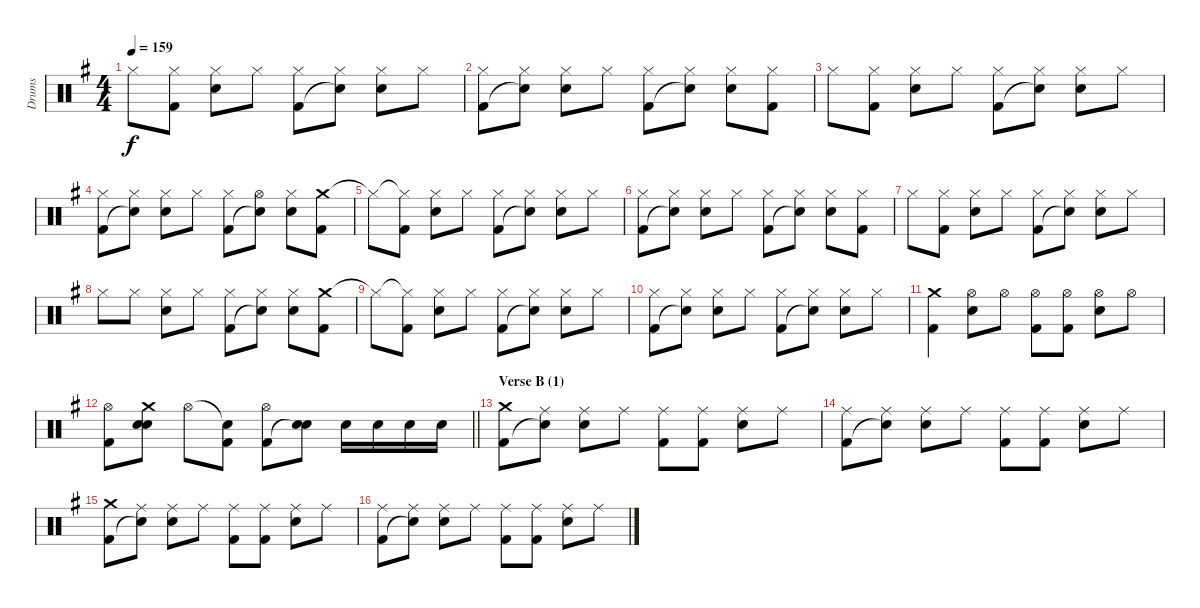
\track ("Drums" "Drums") {instrument percussion}
\staff {score}
\articulation defaults
\ts (4 4)
\tempo 159
\clef neutral
\ks g "Hi-Hat (closed)".8{dy f}
("Hi-Hat (closed)" "Kick (hit) 2").8 ("Hi-Hat (closed)" "Electric Snare (hit)").8 "Hi-Hat (closed)".8 ("Hi-Hat (closed)" "Kick (hit) 2").8 ("Hi-Hat (closed)" "Snare (hit)"{t}).8 ("Hi-Hat (closed)" "Electric Snare (hit)").8 "Hi-Hat (closed)".8 |
("Hi-Hat (closed)" "Kick (hit) 2").8 ("Hi-Hat (closed)" "Snare (hit)"{t}).8 ("Hi-Hat (closed)" "Electric Snare (hit)").8 "Hi-Hat (closed)".8 ("Hi-Hat (closed)" "Kick (hit) 2").8 ("Hi-Hat (closed)" "Snare (hit)"{t}).8 ("Hi-Hat (closed)" "Electric Snare (hit)").8 ("Hi-Hat (closed)" "Kick (hit) 2").8 |
"Hi-Hat (closed)".8 ("Hi-Hat (closed)" "Kick (hit) 2").8 ("Hi-Hat (closed)" "Electric Snare (hit)").8 "Hi-Hat (closed)".8 ("Hi-Hat (closed)" "Kick (hit) 2").8 ("Hi-Hat (closed)" "Snare (hit)"{t}).8 ("Hi-Hat (closed)" "Electric Snare (hit)").8 "Hi-Hat (closed)".8 |
("Hi-Hat (closed)" "Kick (hit) 2").8 ("Hi-Hat (closed)" "Snare (hit)"{t}).8 ("Hi-Hat (closed)" "Electric Snare (hit)").8 "Hi-Hat (closed)".8 ("Hi-Hat (closed)" "Kick (hit) 2").8 ("Hi-Hat (open)" "Snare (hit)"{t}).8 ("Hi-Hat (closed)" "Electric Snare (hit)").8 ("Crash medium (hit)" "Kick (hit) 2").8 |
"Hi-Hat (closed)"{t}.8 ("Hi-Hat (closed)"{t} "Kick (hit) 2").8 ("Hi-Hat (closed)" "Electric Snare (hit)").8 "Hi-Hat (closed)".8 ("Hi-Hat (closed)" "Kick (hit) 2").8 ("Hi-Hat (closed)" "Snare (hit)"{t}).8 ("Hi-Hat (closed)" "Electric Snare (hit)").8 "Hi-Hat (closed)".8 |
("Hi-Hat (closed)" "Kick (hit) 2").8 ("Hi-Hat (closed)" "Snare (hit)"{t}).8 ("Hi-Hat (closed)" "Electric Snare (hit)").8 "Hi-Hat (closed)".8 ("Hi-Hat (closed)" "Kick (hit) 2").8 ("Hi-Hat (closed)" "Snare (hit)"{t}).8 ("Hi-Hat (closed)" "Electric Snare (hit)").8 ("Hi-Hat (closed)" "Kick (hit) 2").8 |
"Hi-Hat (closed)".8 ("Hi-Hat (closed)" "Kick (hit) 2").8 ("Hi-Hat (closed)" "Electric Snare (hit)").8 "Hi-Hat (closed)".8 ("Hi-Hat (closed)" "Kick (hit) 2").8 ("Hi-Hat (closed)" "Snare (hit)"{t}).8 ("Hi-Hat (closed)" "Electric Snare (hit)").8 "Hi-Hat (closed)".8 |
"Hi-Hat (closed)".8 "Hi-Hat (closed)".8 ("Hi-Hat (closed)" "Electric Snare (hit)").8 "Hi-Hat (closed)".8 ("Hi-Hat (closed)" "Kick (hit) 2").8 ("Hi-Hat (closed)" "Snare (hit)"{t}).8 ("Hi-Hat (closed)" "Electric Snare (hit)").8 ("Crash medium (hit)" "Kick (hit) 2").8 |
"Hi-Hat (closed)"{t}.8 ("Hi-Hat (closed)"{t} "Kick (hit) 2").8 ("Hi-Hat (closed)" "Electric Snare (hit)").8 "Hi-Hat (closed)".8 ("Hi-Hat (closed)" "Kick (hit) 2").8 ("Hi-Hat (closed)" "Snare (hit)"{t}).8 ("Hi-Hat (closed)" "Electric Snare (hit)").8 "Hi-Hat (closed)".8 |
("Hi-Hat (closed)" "Kick (hit) 2").8 ("Hi-Hat (closed)" "Snare (hit)"{t}).8 ("Hi-Hat (closed)" "Electric Snare (hit)").8 "Hi-Hat (closed)".8 ("Hi-Hat (closed)" "Kick (hit) 2").8 ("Hi-Hat (closed)" "Snare (hit)"{t}).8 ("Hi-Hat (closed)" "Electric Snare (hit)").8 "Hi-Hat (closed)".8 |
("Crash medium (hit)" "Kick (hit) 2").4 ("Hi-Hat (open)" "Electric Snare (hit)").8 "Hi-Hat (open)".8 ("Hi-Hat (open)" "Kick (hit) 2").8 ("Hi-Hat (open)" "Kick (hit) 2").8 ("Hi-Hat (open)" "Electric Snare (hit)").8 "Hi-Hat (open)".8 |
\barLineRight lightlight
("Hi-Hat (open)" "Kick (hit) 2").8 ("Crash medium (hit)" "Electric Snare (hit)" "Snare (hit)").8 "Hi-Hat (open)".8 ("Snare (hit)"{t} "Kick (hit) 2").8 ("Hi-Hat (open)" "Kick (hit) 2").8 ("Electric Snare (hit)" "Snare (hit)"{t}).8 "Electric Snare (hit)".16 "Electric Snare (hit)".16 "Electric Snare (hit)".16 "Electric Snare (hit)".16 |
\section ("" "Verse B (1)")
("Crash medium (hit)" "Kick (hit) 2").8 ("Ride (middle)" "Snare (hit)"{t}).8 ("Ride (middle)" "Electric Snare (hit)").8 "Ride (middle)".8 ("Ride (middle)" "Kick (hit) 2").8 ("Ride (middle)" "Kick (hit) 2").8 ("Ride (middle)" "Electric Snare (hit)").8 "Ride (middle)".8 |
("Ride (middle)" "Kick (hit) 2").8 ("Ride (middle)" "Snare (hit)"{t}).8 ("Ride (middle)" "Electric Snare (hit)").8 "Ride (middle)".8 ("Ride (middle)" "Kick (hit) 2").8 ("Ride (middle)" "Kick (hit) 2").8 ("Ride (middle)" "Electric Snare (hit)").8 "Ride (middle)".8 |
("Crash medium (hit)" "Kick (hit) 2").8 ("Ride (middle)" "Snare (hit)"{t}).8 ("Ride (middle)" "Electric Snare (hit)").8 "Ride (middle)".8 ("Ride (middle)" "Kick (hit) 2").8 ("Ride (middle)" "Kick (hit) 2").8 ("Ride (middle)" "Electric Snare (hit)").8 "Ride (middle)".8 |
("Ride (middle)" "Kick (hit) 2").8 ("Ride (middle)" "Snare (hit)"{t}).8 ("Ride (middle)" "Electric Snare (hit)").8 "Ride (middle)".8 ("Ride (middle)" "Kick (hit) 2").8 ("Ride (middle)" "Kick (hit) 2").8 ("Ride (middle)" "Electric Snare (hit)").8 "Ride (middle)".8
